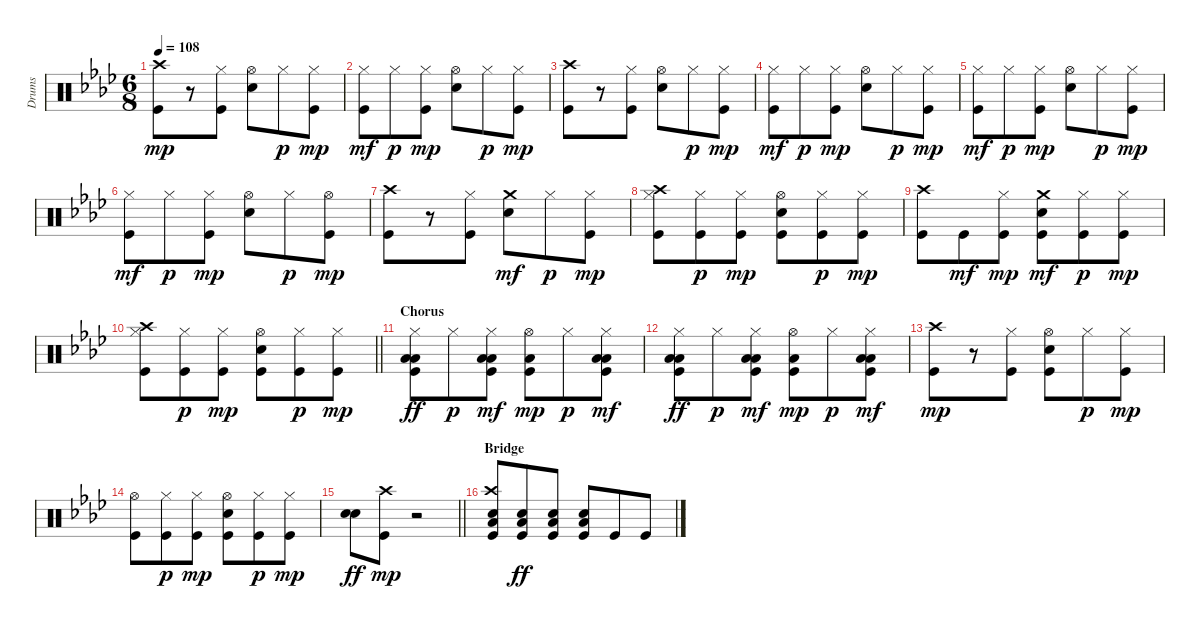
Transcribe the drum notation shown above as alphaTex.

\track ("Drums" "Drums") {instrument percussion}
\staff {score}
\articulation defaults
\ts (6 8)
\tempo 108
\clef neutral
\ks ab
("Kick (hit)" "Crash high (hit)").8{dy mp} r.8 ("Kick (hit)" "Hi-Hat (closed)").8 ("Electric Snare (hit)" "Hi-Hat (open)").8 "Hi-Hat (closed)".8{dy p} ("Kick (hit)" "Hi-Hat (closed)").8{dy mp} |
("Kick (hit)" "Hi-Hat (closed)").8{dy mf} "Hi-Hat (closed)".8{dy p} ("Kick (hit)" "Hi-Hat (closed)").8{dy mp} ("Electric Snare (hit)" "Hi-Hat (open)").8 "Hi-Hat (closed)".8{dy p} ("Kick (hit)" "Hi-Hat (closed)").8{dy mp} |
("Kick (hit)" "Crash high (hit)").8 r.8 ("Kick (hit)" "Hi-Hat (closed)").8 ("Electric Snare (hit)" "Hi-Hat (open)").8 "Hi-Hat (closed)".8{dy p} ("Kick (hit)" "Hi-Hat (closed)").8{dy mp} |
("Kick (hit)" "Hi-Hat (closed)").8{dy mf} "Hi-Hat (closed)".8{dy p} ("Kick (hit)" "Hi-Hat (closed)").8{dy mp} ("Electric Snare (hit)" "Hi-Hat (open)").8 "Hi-Hat (closed)".8{dy p} ("Kick (hit)" "Hi-Hat (closed)").8{dy mp} |
("Kick (hit)" "Hi-Hat (closed)").8{dy mf} "Hi-Hat (closed)".8{dy p} ("Kick (hit)" "Hi-Hat (closed)").8{dy mp} ("Electric Snare (hit)" "Hi-Hat (open)").8 "Hi-Hat (closed)".8{dy p} ("Kick (hit)" "Hi-Hat (closed)").8{dy mp} |
("Kick (hit)" "Hi-Hat (closed)").8{dy mf} "Hi-Hat (closed)".8{dy p} ("Kick (hit)" "Hi-Hat (closed)").8{dy mp} ("Electric Snare (hit)" "Hi-Hat (open)").8 "Hi-Hat (closed)".8{dy p} ("Kick (hit)" "Hi-Hat (open)").8{dy mp} |
("Kick (hit)" "Crash high (hit)").8 r.8 ("Kick (hit)" "Hi-Hat (closed)").8 ("Electric Snare (hit)" "Crash medium (hit)").8{dy mf} "Hi-Hat (closed)".8{dy p} ("Kick (hit)" "Hi-Hat (closed)").8{dy mp} |
("Kick (hit)" "Hi-Hat (closed)" "Crash high (hit)").8 ("Kick (hit)" "Hi-Hat (closed)").8{dy p} ("Kick (hit)" "Hi-Hat (closed)").8{dy mp} ("Kick (hit)" "Electric Snare (hit)" "Hi-Hat (open)").8 ("Kick (hit)" "Hi-Hat (closed)").8{dy p} ("Kick (hit)" "Hi-Hat (closed)").8{dy mp} |
("Kick (hit)" "Crash high (hit)").8 "Kick (hit)".8{dy mf} ("Kick (hit)" "Hi-Hat (closed)").8{dy mp} ("Kick (hit)" "Electric Snare (hit)" "Crash medium (hit)").8{dy mf} ("Kick (hit)" "Hi-Hat (closed)").8{dy p} ("Kick (hit)" "Hi-Hat (closed)").8{dy mp} |
\barLineRight lightlight
("Kick (hit)" "Hi-Hat (closed)" "Crash high (hit)").8 ("Kick (hit)" "Hi-Hat (closed)").8{dy p} ("Kick (hit)" "Hi-Hat (closed)").8{dy mp} ("Kick (hit)" "Electric Snare (hit)" "Hi-Hat (open)").8 ("Kick (hit)" "Hi-Hat (closed)").8{dy p} ("Kick (hit)" "Hi-Hat (closed)").8{dy mp} |
\section ("" "Chorus")
("Kick (hit)" "Low Floor Tom (hit)" "Hi-Hat (closed)" "Low Tom (hit)").8{dy ff} "Hi-Hat (closed)".8{dy p} ("Kick (hit)" "Low Floor Tom (hit)" "Hi-Hat (closed)" "Low Tom (hit)").8{dy mf} ("Kick (hit)" "Low Floor Tom (hit)" "Hi-Hat (open)").8{dy mp} "Hi-Hat (closed)".8{dy p} ("Kick (hit)" "Low Floor Tom (hit)" "Hi-Hat (closed)" "Low Tom (hit)").8{dy mf} |
("Kick (hit)" "Low Floor Tom (hit)" "Hi-Hat (closed)" "Low Tom (hit)").8{dy ff} "Hi-Hat (closed)".8{dy p} ("Kick (hit)" "Low Floor Tom (hit)" "Hi-Hat (closed)" "Low Tom (hit)").8{dy mf} ("Kick (hit)" "Low Floor Tom (hit)" "Hi-Hat (open)").8{dy mp} "Hi-Hat (closed)".8{dy p} ("Kick (hit)" "Low Floor Tom (hit)" "Hi-Hat (closed)" "Low Tom (hit)").8{dy mf} |
("Kick (hit)" "Crash high (hit)").8{dy mp} r.8 ("Kick (hit)" "Hi-Hat (closed)").8 ("Kick (hit)" "Electric Snare (hit)" "Hi-Hat (open)").8 "Hi-Hat (closed)".8{dy p} ("Kick (hit)" "Hi-Hat (closed)").8{dy mp} |
("Kick (hit)" "Hi-Hat (open)").8 ("Kick (hit)" "Hi-Hat (closed)").8{dy p} ("Kick (hit)" "Hi-Hat (closed)").8{dy mp} ("Kick (hit)" "Electric Snare (hit)" "Hi-Hat (open)").8 ("Kick (hit)" "Hi-Hat (closed)").8{dy p} ("Kick (hit)" "Hi-Hat (closed)").8{dy mp} |
\barLineRight lightlight
("Electric Snare (hit)" "Electric Snare (hit)").8{dy ff} ("Kick (hit)" "Crash high (hit)").8{dy mp} r.2 |
\section ("" "Bridge")
("Kick (hit)" "Electric Snare (hit)" "Low Floor Tom (hit)" "Crash high (hit)").8 ("Kick (hit)" "Electric Snare (hit)" "Low Floor Tom (hit)").8{dy ff} ("Kick (hit)" "Electric Snare (hit)" "Low Floor Tom (hit)").8 ("Kick (hit)" "Electric Snare (hit)" "Low Floor Tom (hit)").8 "Kick (hit)".8 "Kick (hit)".8
